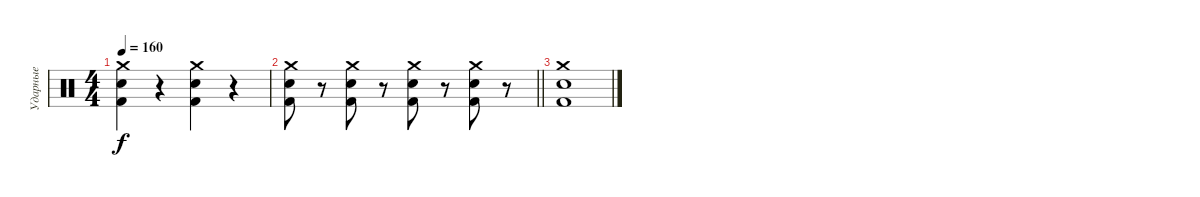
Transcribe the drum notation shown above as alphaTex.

\track ("Ударные" "Ударные") {instrument percussion}
\staff {score}
\articulation defaults
\ts (4 4)
\tempo 160
\clef neutral
\ks c
("Crash medium (hit)" "Kick (hit) 2" "Snare (hit) 2").4{dy f} r.4 ("Crash medium (hit)" "Kick (hit) 2" "Snare (hit) 2").4 r.4 |
\barLineRight lightlight
("Crash medium (hit)" "Kick (hit) 2" "Snare (hit) 2").8 r.8 ("Crash medium (hit)" "Kick (hit) 2" "Snare (hit) 2").8 r.8 ("Crash medium (hit)" "Kick (hit) 2" "Snare (hit) 2").8 r.8 ("Crash medium (hit)" "Kick (hit) 2" "Snare (hit) 2").8 r.8 |
("Crash medium (hit)" "Kick (hit) 2" "Snare (hit) 2").1
